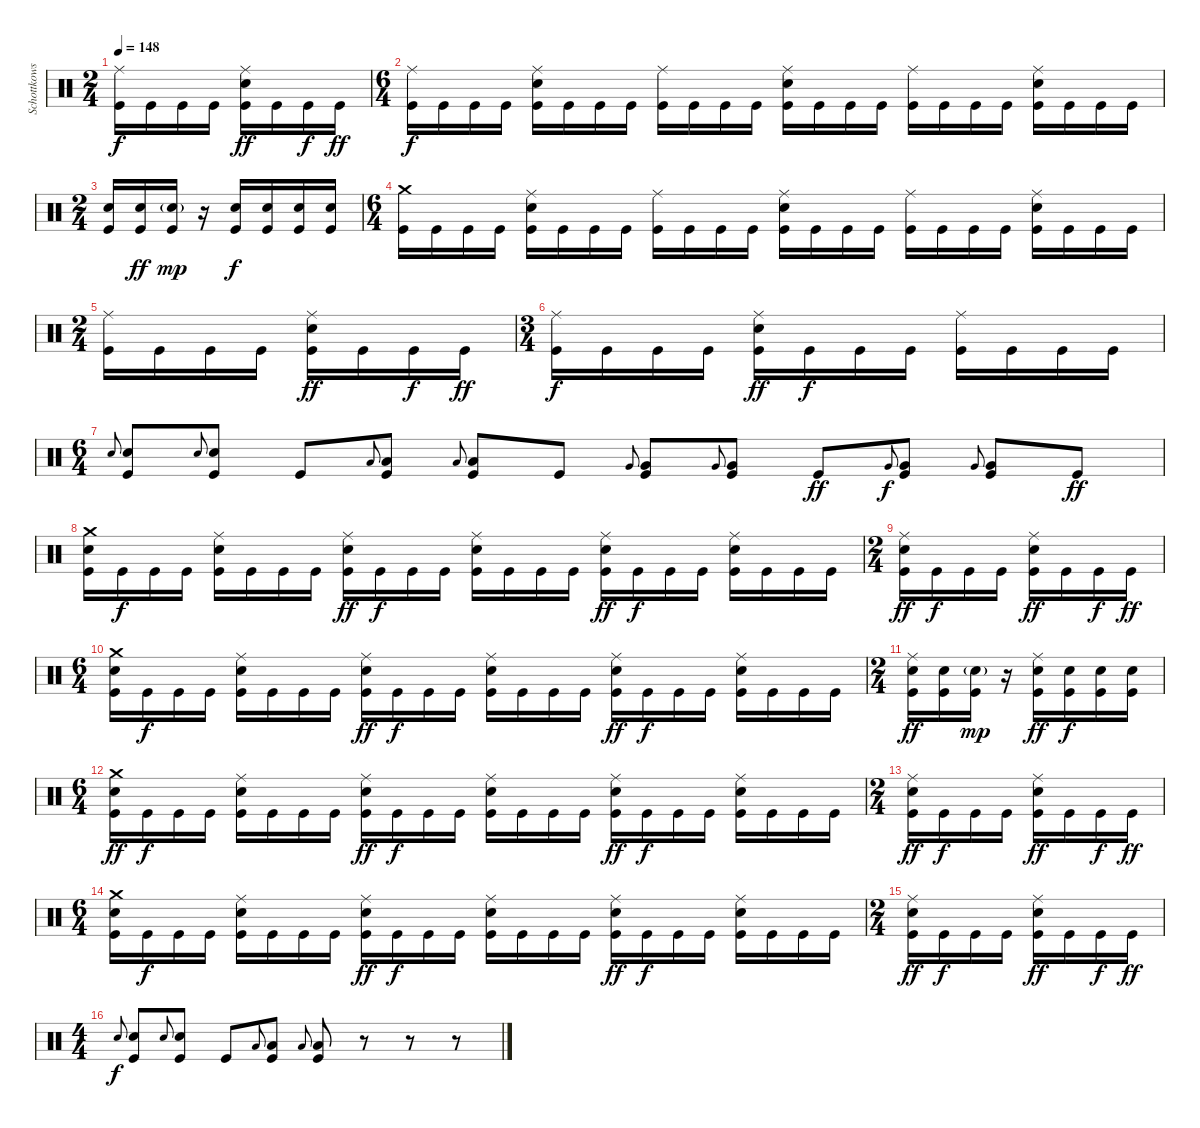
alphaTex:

\track ("Schottkowski" "Schottkows") {instrument percussion}
\staff {score}
\articulation defaults
\ts (2 4)
\tempo 148
\clef neutral
\ks c
("Ride (middle)" "Kick (hit)").16{dy f} "Kick (hit)".16 "Kick (hit)".16 "Kick (hit)".16 ("Ride (middle)" "Electric Snare (hit)" "Kick (hit)").16{dy ff} "Kick (hit)".16 "Kick (hit)".16{dy f} "Kick (hit)".16{dy ff} |
\ts (6 4)
("Ride (middle)" "Kick (hit)").16{dy f} "Kick (hit)".16 "Kick (hit)".16 "Kick (hit)".16 ("Ride (middle)" "Electric Snare (hit)" "Kick (hit)").16 "Kick (hit)".16 "Kick (hit)".16 "Kick (hit)".16 ("Ride (middle)" "Kick (hit)").16 "Kick (hit)".16 "Kick (hit)".16 "Kick (hit)".16 ("Ride (middle)" "Electric Snare (hit)" "Kick (hit)").16 "Kick (hit)".16 "Kick (hit)".16 "Kick (hit)".16 ("Ride (middle)" "Kick (hit)").16 "Kick (hit)".16 "Kick (hit)".16 "Kick (hit)".16 ("Ride (middle)" "Electric Snare (hit)" "Kick (hit)").16 "Kick (hit)".16 "Kick (hit)".16 "Kick (hit)".16 |
\ts (2 4)
("Electric Snare (hit)" "Kick (hit)").16 ("Electric Snare (hit)" "Kick (hit)").16{dy ff} ("Electric Snare (hit)"{g} "Kick (hit)").16{dy mp} r.16 ("Electric Snare (hit)" "Kick (hit)").16{dy f} ("Electric Snare (hit)" "Kick (hit)").16 ("Electric Snare (hit)" "Kick (hit)").16 ("Electric Snare (hit)" "Kick (hit)").16 |
\ts (6 4)
("Crash medium (hit)" "Kick (hit)").16 "Kick (hit)".16 "Kick (hit)".16 "Kick (hit)".16 ("Ride (middle)" "Electric Snare (hit)" "Kick (hit)").16 "Kick (hit)".16 "Kick (hit)".16 "Kick (hit)".16 ("Ride (middle)" "Kick (hit)").16 "Kick (hit)".16 "Kick (hit)".16 "Kick (hit)".16 ("Ride (middle)" "Electric Snare (hit)" "Kick (hit)").16 "Kick (hit)".16 "Kick (hit)".16 "Kick (hit)".16 ("Ride (middle)" "Kick (hit)").16 "Kick (hit)".16 "Kick (hit)".16 "Kick (hit)".16 ("Ride (middle)" "Electric Snare (hit)" "Kick (hit)").16 "Kick (hit)".16 "Kick (hit)".16 "Kick (hit)".16 |
\ts (2 4)
("Ride (middle)" "Kick (hit)").16 "Kick (hit)".16 "Kick (hit)".16 "Kick (hit)".16 ("Ride (middle)" "Electric Snare (hit)" "Kick (hit)").16{dy ff} "Kick (hit)".16 "Kick (hit)".16{dy f} "Kick (hit)".16{dy ff} |
\ts (3 4)
("Ride (middle)" "Kick (hit)").16{dy f} "Kick (hit)".16 "Kick (hit)".16 "Kick (hit)".16 ("Ride (middle)" "Electric Snare (hit)" "Kick (hit)").16{dy ff} "Kick (hit)".16{dy f} "Kick (hit)".16 "Kick (hit)".16 ("Ride (middle)" "Kick (hit)").16 "Kick (hit)".16 "Kick (hit)".16 "Kick (hit)".16 |
\ts (6 4)
"Electric Snare (hit)".8{gr onbeat} ("Electric Snare (hit)" "Kick (hit)").8 "Electric Snare (hit)".8{gr onbeat} ("Electric Snare (hit)" "Kick (hit)").8 "Kick (hit)".8 "Low Tom (hit)".8{gr onbeat} ("Low Tom (hit)" "Kick (hit)").8 "Low Tom (hit)".8{gr onbeat} ("Low Tom (hit)" "Kick (hit)").8 "Kick (hit)".8 "Very Low Tom (hit)".8{gr onbeat} ("Very Low Tom (hit)" "Kick (hit)").8 "Very Low Tom (hit)".8{gr onbeat} ("Very Low Tom (hit)" "Kick (hit)").8 "Kick (hit)".8{dy ff} "Very Low Tom (hit)".8{gr onbeat dy f} ("Very Low Tom (hit)" "Kick (hit)").8 "Very Low Tom (hit)".8{gr onbeat} ("Very Low Tom (hit)" "Kick (hit)").8 "Kick (hit)".8{dy ff} |
("Crash medium (hit)" "Electric Snare (hit)" "Kick (hit)").16 "Kick (hit)".16{dy f} "Kick (hit)".16 "Kick (hit)".16 ("Ride (middle)" "Electric Snare (hit)" "Kick (hit)").16 "Kick (hit)".16 "Kick (hit)".16 "Kick (hit)".16 ("Ride (middle)" "Electric Snare (hit)" "Kick (hit)").16{dy ff} "Kick (hit)".16{dy f} "Kick (hit)".16 "Kick (hit)".16 ("Ride (middle)" "Electric Snare (hit)" "Kick (hit)").16 "Kick (hit)".16 "Kick (hit)".16 "Kick (hit)".16 ("Ride (middle)" "Electric Snare (hit)" "Kick (hit)").16{dy ff} "Kick (hit)".16{dy f} "Kick (hit)".16 "Kick (hit)".16 ("Ride (middle)" "Electric Snare (hit)" "Kick (hit)").16 "Kick (hit)".16 "Kick (hit)".16 "Kick (hit)".16 |
\ts (2 4)
("Ride (middle)" "Electric Snare (hit)" "Kick (hit)").16{dy ff} "Kick (hit)".16{dy f} "Kick (hit)".16 "Kick (hit)".16 ("Ride (middle)" "Electric Snare (hit)" "Kick (hit)").16{dy ff} "Kick (hit)".16 "Kick (hit)".16{dy f} "Kick (hit)".16{dy ff} |
\ts (6 4)
("Crash medium (hit)" "Electric Snare (hit)" "Kick (hit)").16 "Kick (hit)".16{dy f} "Kick (hit)".16 "Kick (hit)".16 ("Ride (middle)" "Electric Snare (hit)" "Kick (hit)").16 "Kick (hit)".16 "Kick (hit)".16 "Kick (hit)".16 ("Ride (middle)" "Electric Snare (hit)" "Kick (hit)").16{dy ff} "Kick (hit)".16{dy f} "Kick (hit)".16 "Kick (hit)".16 ("Ride (middle)" "Electric Snare (hit)" "Kick (hit)").16 "Kick (hit)".16 "Kick (hit)".16 "Kick (hit)".16 ("Ride (middle)" "Electric Snare (hit)" "Kick (hit)").16{dy ff} "Kick (hit)".16{dy f} "Kick (hit)".16 "Kick (hit)".16 ("Ride (middle)" "Electric Snare (hit)" "Kick (hit)").16 "Kick (hit)".16 "Kick (hit)".16 "Kick (hit)".16 |
\ts (2 4)
("Ride (middle)" "Electric Snare (hit)" "Kick (hit)").16{dy ff} ("Electric Snare (hit)" "Kick (hit)").16 ("Electric Snare (hit)"{g} "Kick (hit)").16{dy mp} r.16 ("Ride (middle)" "Electric Snare (hit)" "Kick (hit)").16{dy ff} ("Electric Snare (hit)" "Kick (hit)").16{dy f} ("Electric Snare (hit)" "Kick (hit)").16 ("Electric Snare (hit)" "Kick (hit)").16 |
\ts (6 4)
("Crash medium (hit)" "Electric Snare (hit)" "Kick (hit)").16{dy ff} "Kick (hit)".16{dy f} "Kick (hit)".16 "Kick (hit)".16 ("Ride (middle)" "Electric Snare (hit)" "Kick (hit)").16 "Kick (hit)".16 "Kick (hit)".16 "Kick (hit)".16 ("Ride (middle)" "Electric Snare (hit)" "Kick (hit)").16{dy ff} "Kick (hit)".16{dy f} "Kick (hit)".16 "Kick (hit)".16 ("Ride (middle)" "Electric Snare (hit)" "Kick (hit)").16 "Kick (hit)".16 "Kick (hit)".16 "Kick (hit)".16 ("Ride (middle)" "Electric Snare (hit)" "Kick (hit)").16{dy ff} "Kick (hit)".16{dy f} "Kick (hit)".16 "Kick (hit)".16 ("Ride (middle)" "Electric Snare (hit)" "Kick (hit)").16 "Kick (hit)".16 "Kick (hit)".16 "Kick (hit)".16 |
\ts (2 4)
("Ride (middle)" "Electric Snare (hit)" "Kick (hit)").16{dy ff} "Kick (hit)".16{dy f} "Kick (hit)".16 "Kick (hit)".16 ("Ride (middle)" "Electric Snare (hit)" "Kick (hit)").16{dy ff} "Kick (hit)".16 "Kick (hit)".16{dy f} "Kick (hit)".16{dy ff} |
\ts (6 4)
("Crash medium (hit)" "Electric Snare (hit)" "Kick (hit)").16 "Kick (hit)".16{dy f} "Kick (hit)".16 "Kick (hit)".16 ("Ride (middle)" "Electric Snare (hit)" "Kick (hit)").16 "Kick (hit)".16 "Kick (hit)".16 "Kick (hit)".16 ("Ride (middle)" "Electric Snare (hit)" "Kick (hit)").16{dy ff} "Kick (hit)".16{dy f} "Kick (hit)".16 "Kick (hit)".16 ("Ride (middle)" "Electric Snare (hit)" "Kick (hit)").16 "Kick (hit)".16 "Kick (hit)".16 "Kick (hit)".16 ("Ride (middle)" "Electric Snare (hit)" "Kick (hit)").16{dy ff} "Kick (hit)".16{dy f} "Kick (hit)".16 "Kick (hit)".16 ("Ride (middle)" "Electric Snare (hit)" "Kick (hit)").16 "Kick (hit)".16 "Kick (hit)".16 "Kick (hit)".16 |
\ts (2 4)
("Ride (middle)" "Electric Snare (hit)" "Kick (hit)").16{dy ff} "Kick (hit)".16{dy f} "Kick (hit)".16 "Kick (hit)".16 ("Ride (middle)" "Electric Snare (hit)" "Kick (hit)").16{dy ff} "Kick (hit)".16 "Kick (hit)".16{dy f} "Kick (hit)".16{dy ff} |
\ts (4 4)
"Electric Snare (hit)".8{gr onbeat dy f} ("Electric Snare (hit)" "Kick (hit)").8 "Electric Snare (hit)".8{gr onbeat} ("Electric Snare (hit)" "Kick (hit)").8 "Kick (hit)".8 "Low Tom (hit)".8{gr onbeat} ("Low Tom (hit)" "Kick (hit)").8 "Low Tom (hit)".8{gr onbeat} ("Low Tom (hit)" "Kick (hit)").8 r.8 r.8 r.8
